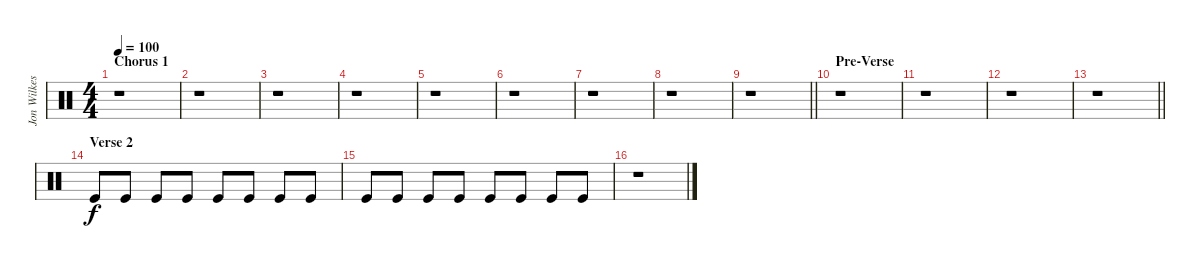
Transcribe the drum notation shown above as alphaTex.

\track ("Jon Wilkes" "Jon Wilkes") {solo instrument percussion}
\staff {score}
\articulation defaults
\ts (4 4)
\section ("" "Chorus 1")
\tempo 100
\clef neutral
\ks c
r.1{dy f} |
r.1 |
r.1 |
r.1 |
r.1 |
r.1 |
r.1 |
r.1 |
\barLineRight lightlight
r.1 |
\section ("" "Pre-Verse")
r.1 |
r.1 |
r.1 |
\barLineRight lightlight
r.1 |
\section ("" "Verse 2")
"Kick (hit)".8 "Kick (hit)".8 "Kick (hit)".8 "Kick (hit)".8 "Kick (hit)".8 "Kick (hit)".8 "Kick (hit)".8 "Kick (hit)".8 |
"Kick (hit)".8 "Kick (hit)".8 "Kick (hit)".8 "Kick (hit)".8 "Kick (hit)".8 "Kick (hit)".8 "Kick (hit)".8 "Kick (hit)".8 |
r.1
